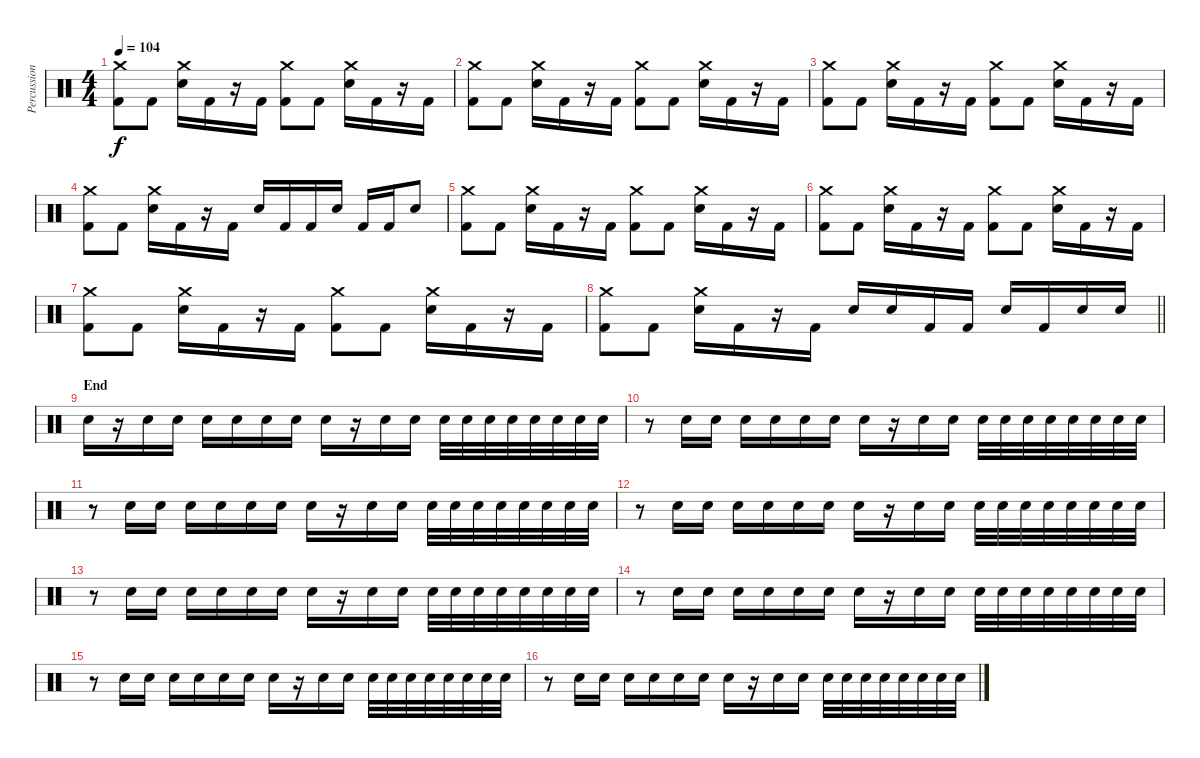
\track ("Percussioni" "Percussion") {instrument percussion}
\staff {score}
\articulation defaults
\ts (4 4)
\tempo 104
\clef neutral
\ks c
("Crash medium (hit)" "Kick (hit) 2").8{dy f} "Kick (hit) 2".8 ("Crash medium (hit)" "Electric Snare (hit)").16 "Kick (hit) 2".16 r.16 "Kick (hit) 2".16 ("Crash medium (hit)" "Kick (hit) 2").8 "Kick (hit) 2".8 ("Crash medium (hit)" "Electric Snare (hit)").16 "Kick (hit) 2".16 r.16 "Kick (hit) 2".16 |
("Crash medium (hit)" "Kick (hit) 2").8 "Kick (hit) 2".8 ("Crash medium (hit)" "Electric Snare (hit)").16 "Kick (hit) 2".16 r.16 "Kick (hit) 2".16 ("Crash medium (hit)" "Kick (hit) 2").8 "Kick (hit) 2".8 ("Crash medium (hit)" "Electric Snare (hit)").16 "Kick (hit) 2".16 r.16 "Kick (hit) 2".16 |
("Crash medium (hit)" "Kick (hit) 2").8 "Kick (hit) 2".8 ("Crash medium (hit)" "Electric Snare (hit)").16 "Kick (hit) 2".16 r.16 "Kick (hit) 2".16 ("Crash medium (hit)" "Kick (hit) 2").8 "Kick (hit) 2".8 ("Crash medium (hit)" "Electric Snare (hit)").16 "Kick (hit) 2".16 r.16 "Kick (hit) 2".16 |
("Crash medium (hit)" "Kick (hit) 2").8 "Kick (hit) 2".8 ("Crash medium (hit)" "Electric Snare (hit)").16 "Kick (hit) 2".16 r.16 "Kick (hit) 2".16 "Electric Snare (hit)".16 "Kick (hit) 2".16 "Kick (hit) 2".16 "Electric Snare (hit)".16 "Kick (hit) 2".16 "Kick (hit) 2".16 "Electric Snare (hit)".8 |
("Crash medium (hit)" "Kick (hit) 2").8 "Kick (hit) 2".8 ("Crash medium (hit)" "Electric Snare (hit)").16 "Kick (hit) 2".16 r.16 "Kick (hit) 2".16 ("Crash medium (hit)" "Kick (hit) 2").8 "Kick (hit) 2".8 ("Crash medium (hit)" "Electric Snare (hit)").16 "Kick (hit) 2".16 r.16 "Kick (hit) 2".16 |
("Crash medium (hit)" "Kick (hit) 2").8 "Kick (hit) 2".8 ("Crash medium (hit)" "Electric Snare (hit)").16 "Kick (hit) 2".16 r.16 "Kick (hit) 2".16 ("Crash medium (hit)" "Kick (hit) 2").8 "Kick (hit) 2".8 ("Crash medium (hit)" "Electric Snare (hit)").16 "Kick (hit) 2".16 r.16 "Kick (hit) 2".16 |
("Crash medium (hit)" "Kick (hit) 2").8 "Kick (hit) 2".8 ("Crash medium (hit)" "Electric Snare (hit)").16 "Kick (hit) 2".16 r.16 "Kick (hit) 2".16 ("Crash medium (hit)" "Kick (hit) 2").8 "Kick (hit) 2".8 ("Crash medium (hit)" "Electric Snare (hit)").16 "Kick (hit) 2".16 r.16 "Kick (hit) 2".16 |
\barLineRight lightlight
("Crash medium (hit)" "Kick (hit) 2").8 "Kick (hit) 2".8 ("Crash medium (hit)" "Electric Snare (hit)").16 "Kick (hit) 2".16 r.16 "Kick (hit) 2".16 "Electric Snare (hit)".16 "Electric Snare (hit)".16 "Kick (hit) 2".16 "Kick (hit) 2".16 "Electric Snare (hit)".16 "Kick (hit) 2".16 "Electric Snare (hit)".16 "Electric Snare (hit)".16 |
\section ("" "End")
"Electric Snare (hit)".16{volume 4} r.16 "Electric Snare (hit)".16 "Electric Snare (hit)".16 "Electric Snare (hit)".16 "Electric Snare (hit)".16 "Electric Snare (hit)".16 "Electric Snare (hit)".16 "Electric Snare (hit)".16 r.16 "Electric Snare (hit)".16 "Electric Snare (hit)".16 "Electric Snare (hit)".32 "Electric Snare (hit)".32 "Electric Snare (hit)".32 "Electric Snare (hit)".32 "Electric Snare (hit)".32 "Electric Snare (hit)".32 "Electric Snare (hit)".32 "Electric Snare (hit)".32 |
r.8{volume 7} "Electric Snare (hit)".16 "Electric Snare (hit)".16 "Electric Snare (hit)".16 "Electric Snare (hit)".16 "Electric Snare (hit)".16 "Electric Snare (hit)".16 "Electric Snare (hit)".16 r.16 "Electric Snare (hit)".16 "Electric Snare (hit)".16 "Electric Snare (hit)".32 "Electric Snare (hit)".32 "Electric Snare (hit)".32 "Electric Snare (hit)".32 "Electric Snare (hit)".32 "Electric Snare (hit)".32 "Electric Snare (hit)".32 "Electric Snare (hit)".32 |
r.8{volume 10} "Electric Snare (hit)".16 "Electric Snare (hit)".16 "Electric Snare (hit)".16 "Electric Snare (hit)".16 "Electric Snare (hit)".16 "Electric Snare (hit)".16 "Electric Snare (hit)".16 r.16 "Electric Snare (hit)".16 "Electric Snare (hit)".16 "Electric Snare (hit)".32 "Electric Snare (hit)".32 "Electric Snare (hit)".32 "Electric Snare (hit)".32 "Electric Snare (hit)".32 "Electric Snare (hit)".32 "Electric Snare (hit)".32 "Electric Snare (hit)".32 |
r.8 "Electric Snare (hit)".16 "Electric Snare (hit)".16 "Electric Snare (hit)".16 "Electric Snare (hit)".16 "Electric Snare (hit)".16 "Electric Snare (hit)".16 "Electric Snare (hit)".16 r.16 "Electric Snare (hit)".16 "Electric Snare (hit)".16 "Electric Snare (hit)".32 "Electric Snare (hit)".32 "Electric Snare (hit)".32 "Electric Snare (hit)".32 "Electric Snare (hit)".32 "Electric Snare (hit)".32 "Electric Snare (hit)".32 "Electric Snare (hit)".32 |
r.8 "Electric Snare (hit)".16 "Electric Snare (hit)".16 "Electric Snare (hit)".16 "Electric Snare (hit)".16 "Electric Snare (hit)".16 "Electric Snare (hit)".16 "Electric Snare (hit)".16 r.16 "Electric Snare (hit)".16 "Electric Snare (hit)".16 "Electric Snare (hit)".32 "Electric Snare (hit)".32 "Electric Snare (hit)".32 "Electric Snare (hit)".32 "Electric Snare (hit)".32 "Electric Snare (hit)".32 "Electric Snare (hit)".32 "Electric Snare (hit)".32 |
r.8 "Electric Snare (hit)".16 "Electric Snare (hit)".16 "Electric Snare (hit)".16 "Electric Snare (hit)".16 "Electric Snare (hit)".16 "Electric Snare (hit)".16 "Electric Snare (hit)".16 r.16 "Electric Snare (hit)".16 "Electric Snare (hit)".16 "Electric Snare (hit)".32 "Electric Snare (hit)".32 "Electric Snare (hit)".32 "Electric Snare (hit)".32 "Electric Snare (hit)".32 "Electric Snare (hit)".32 "Electric Snare (hit)".32 "Electric Snare (hit)".32 |
r.8 "Electric Snare (hit)".16 "Electric Snare (hit)".16 "Electric Snare (hit)".16 "Electric Snare (hit)".16 "Electric Snare (hit)".16 "Electric Snare (hit)".16 "Electric Snare (hit)".16 r.16 "Electric Snare (hit)".16 "Electric Snare (hit)".16 "Electric Snare (hit)".32 "Electric Snare (hit)".32 "Electric Snare (hit)".32 "Electric Snare (hit)".32 "Electric Snare (hit)".32 "Electric Snare (hit)".32 "Electric Snare (hit)".32 "Electric Snare (hit)".32 |
r.8{volume 9} "Electric Snare (hit)".16 "Electric Snare (hit)".16 "Electric Snare (hit)".16 "Electric Snare (hit)".16 "Electric Snare (hit)".16 "Electric Snare (hit)".16 "Electric Snare (hit)".16 r.16 "Electric Snare (hit)".16 "Electric Snare (hit)".16 "Electric Snare (hit)".32 "Electric Snare (hit)".32 "Electric Snare (hit)".32 "Electric Snare (hit)".32 "Electric Snare (hit)".32 "Electric Snare (hit)".32 "Electric Snare (hit)".32 "Electric Snare (hit)".32
